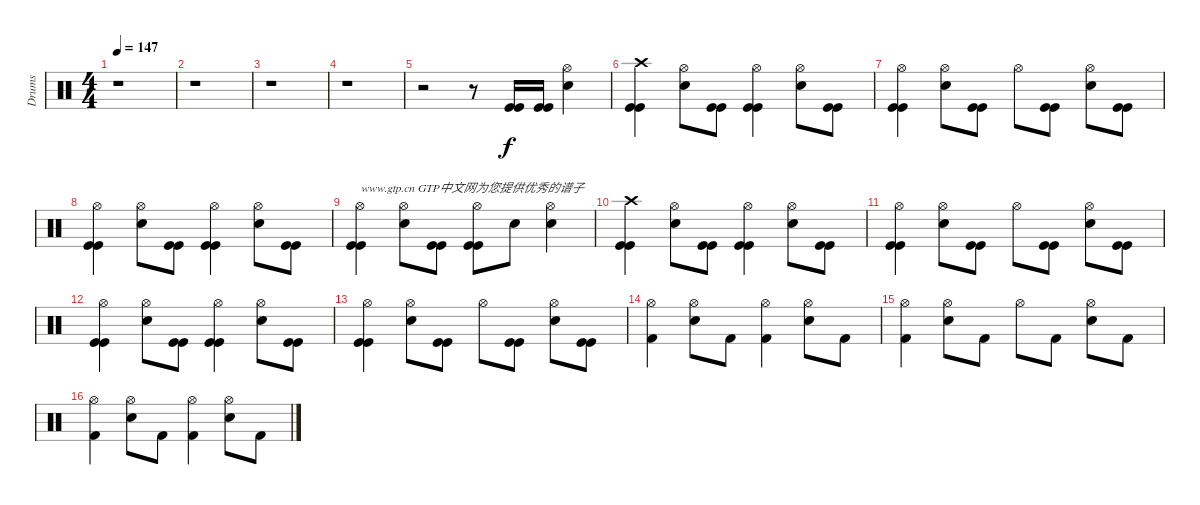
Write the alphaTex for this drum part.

\track ("Drums" "Drums") {instrument percussion}
\staff {score}
\articulation defaults
\ts (4 4)
\tempo 147
\clef neutral
\ks c
r.1{dy f} |
r.1 |
r.1 |
r.1 |
r.2 r.8 ("Kick (hit)" "Kick (hit)").16 ("Kick (hit)" "Kick (hit)").16 ("Hi-Hat (open)" "Electric Snare (hit)").4 |
("Crash high (hit)" "Kick (hit)" "Kick (hit)").4 ("Hi-Hat (open)" "Electric Snare (hit)").8 ("Kick (hit)" "Kick (hit)").8 ("Hi-Hat (open)" "Kick (hit)" "Kick (hit)").4 ("Hi-Hat (open)" "Electric Snare (hit)").8 ("Kick (hit)" "Kick (hit)").8 |
("Hi-Hat (open)" "Kick (hit)" "Kick (hit)").4 ("Hi-Hat (open)" "Electric Snare (hit)").8 ("Kick (hit)" "Kick (hit)").8 "Hi-Hat (open)".8 ("Kick (hit)" "Kick (hit)").8 ("Hi-Hat (open)" "Electric Snare (hit)").8 ("Kick (hit)" "Kick (hit)").8 |
("Hi-Hat (open)" "Kick (hit)" "Kick (hit)").4 ("Hi-Hat (open)" "Electric Snare (hit)").8 ("Kick (hit)" "Kick (hit)").8 ("Hi-Hat (open)" "Kick (hit)" "Kick (hit)").4 ("Hi-Hat (open)" "Electric Snare (hit)").8 ("Kick (hit)" "Kick (hit)").8 |
("Hi-Hat (open)" "Kick (hit)" "Kick (hit)").4{txt "www.gtp.cn GTP中文网为您提供优秀的谱子"} ("Hi-Hat (open)" "Electric Snare (hit)").8 ("Kick (hit)" "Kick (hit)").8 ("Hi-Hat (open)" "Kick (hit)" "Kick (hit)").8 "Electric Snare (hit)".8 ("Hi-Hat (open)" "Electric Snare (hit)").4 |
("Crash high (hit)" "Kick (hit)" "Kick (hit)").4 ("Hi-Hat (open)" "Electric Snare (hit)").8 ("Kick (hit)" "Kick (hit)").8 ("Hi-Hat (open)" "Kick (hit)" "Kick (hit)").4 ("Hi-Hat (open)" "Electric Snare (hit)").8 ("Kick (hit)" "Kick (hit)").8 |
("Hi-Hat (open)" "Kick (hit)" "Kick (hit)").4 ("Hi-Hat (open)" "Electric Snare (hit)").8 ("Kick (hit)" "Kick (hit)").8 "Hi-Hat (open)".8 ("Kick (hit)" "Kick (hit)").8 ("Hi-Hat (open)" "Electric Snare (hit)").8 ("Kick (hit)" "Kick (hit)").8 |
("Hi-Hat (open)" "Kick (hit)" "Kick (hit)").4 ("Hi-Hat (open)" "Electric Snare (hit)").8 ("Kick (hit)" "Kick (hit)").8 ("Hi-Hat (open)" "Kick (hit)" "Kick (hit)").4 ("Hi-Hat (open)" "Electric Snare (hit)").8 ("Kick (hit)" "Kick (hit)").8 |
("Hi-Hat (open)" "Kick (hit)" "Kick (hit)").4 ("Hi-Hat (open)" "Electric Snare (hit)").8 ("Kick (hit)" "Kick (hit)").8 "Hi-Hat (open)".8 ("Kick (hit)" "Kick (hit)").8 ("Hi-Hat (open)" "Electric Snare (hit)").8 ("Kick (hit)" "Kick (hit)").8 |
("Kick (hit) 2" "Hi-Hat (open)").4 ("Electric Snare (hit)" "Hi-Hat (open)").8 "Kick (hit) 2".8 ("Kick (hit) 2" "Hi-Hat (open)").4 ("Electric Snare (hit)" "Hi-Hat (open)").8 "Kick (hit) 2".8 |
("Kick (hit) 2" "Hi-Hat (open)").4 ("Electric Snare (hit)" "Hi-Hat (open)").8 "Kick (hit) 2".8 "Hi-Hat (open)".8 "Kick (hit) 2".8 ("Electric Snare (hit)" "Hi-Hat (open)").8 "Kick (hit) 2".8 |
("Kick (hit) 2" "Hi-Hat (open)").4 ("Electric Snare (hit)" "Hi-Hat (open)").8 "Kick (hit) 2".8 ("Kick (hit) 2" "Hi-Hat (open)").4 ("Electric Snare (hit)" "Hi-Hat (open)").8 "Kick (hit) 2".8
